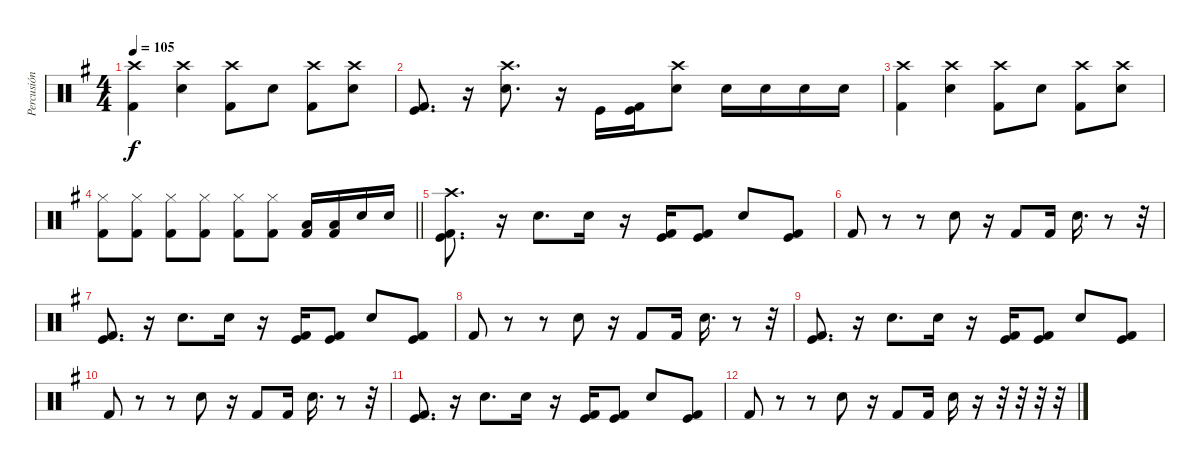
\track ("Percusión" "Percusión") {instrument percussion}
\staff {score}
\articulation defaults
\ts (4 4)
\tempo 105
\clef neutral
\ks g
("Crash high (hit)" "Kick (hit) 2").4{dy f} ("Crash high (hit)" "Electric Snare (hit)").4 ("Crash high (hit)" "Kick (hit) 2").8 "Electric Snare (hit)".8 ("Crash high (hit)" "Kick (hit) 2").8 ("Crash high (hit)" "Electric Snare (hit)").8 |
("Kick (hit)" "Kick (hit) 2").8{d} r.16 ("Crash high (hit)" "Electric Snare (hit)").8{d} r.16 "Kick (hit)".16 ("Kick (hit)" "Kick (hit) 2").16 ("Crash high (hit)" "Electric Snare (hit)").8 "Electric Snare (hit)".16 "Electric Snare (hit)".16 "Electric Snare (hit)".16 "Electric Snare (hit)".16 |
("Crash high (hit)" "Kick (hit) 2").4 ("Crash high (hit)" "Electric Snare (hit)").4 ("Crash high (hit)" "Kick (hit) 2").8 "Electric Snare (hit)".8 ("Crash high (hit)" "Kick (hit) 2").8 ("Crash high (hit)" "Electric Snare (hit)").8 |
\barLineRight lightlight
("Hi-Hat (closed)" "Kick (hit) 2").8 ("Hi-Hat (closed)" "Kick (hit) 2").8 ("Hi-Hat (closed)" "Kick (hit) 2").8 ("Hi-Hat (closed)" "Kick (hit) 2").8 ("Hi-Hat (closed)" "Kick (hit) 2").8 ("Hi-Hat (closed)" "Kick (hit) 2").8 ("Low Tom (hit)" "Kick (hit) 2").16 ("Low Tom (hit)" "Kick (hit) 2").16 "Electric Snare (hit)".16 "Electric Snare (hit)".16 |
("Crash high (hit)" "Kick (hit)" "Kick (hit) 2").8{d} r.16 "Electric Snare (hit)".8{d} "Electric Snare (hit)".16 r.16 ("Kick (hit)" "Kick (hit) 2").16 ("Kick (hit)" "Kick (hit) 2").8 "Electric Snare (hit)".8 ("Kick (hit)" "Kick (hit) 2").8 |
"Kick (hit) 2".8 r.8 r.8 "Electric Snare (hit)".8 r.16 "Kick (hit) 2".8 "Kick (hit) 2".16 "Electric Snare (hit)".16{d} r.8 r.32 |
("Kick (hit)" "Kick (hit) 2").8{d} r.16 "Electric Snare (hit)".8{d} "Electric Snare (hit)".16 r.16 ("Kick (hit)" "Kick (hit) 2").16 ("Kick (hit)" "Kick (hit) 2").8 "Electric Snare (hit)".8 ("Kick (hit)" "Kick (hit) 2").8 |
"Kick (hit) 2".8 r.8 r.8 "Electric Snare (hit)".8 r.16 "Kick (hit) 2".8 "Kick (hit) 2".16 "Electric Snare (hit)".16{d} r.8 r.32 |
("Kick (hit)" "Kick (hit) 2").8{d} r.16 "Electric Snare (hit)".8{d} "Electric Snare (hit)".16 r.16 ("Kick (hit)" "Kick (hit) 2").16 ("Kick (hit)" "Kick (hit) 2").8 "Electric Snare (hit)".8 ("Kick (hit)" "Kick (hit) 2").8 |
"Kick (hit) 2".8 r.8 r.8 "Electric Snare (hit)".8 r.16 "Kick (hit) 2".8 "Kick (hit) 2".16 "Electric Snare (hit)".16{d} r.8 r.32 |
("Kick (hit)" "Kick (hit) 2").8{d} r.16 "Electric Snare (hit)".8{d} "Electric Snare (hit)".16 r.16 ("Kick (hit)" "Kick (hit) 2").16 ("Kick (hit)" "Kick (hit) 2").8 "Electric Snare (hit)".8 ("Kick (hit)" "Kick (hit) 2").8 |
"Kick (hit) 2".8 r.8 r.8 "Electric Snare (hit)".8 r.16 "Kick (hit) 2".8 "Kick (hit) 2".16 "Electric Snare (hit)".16 r.16 r.32 r.32 r.32 r.32
